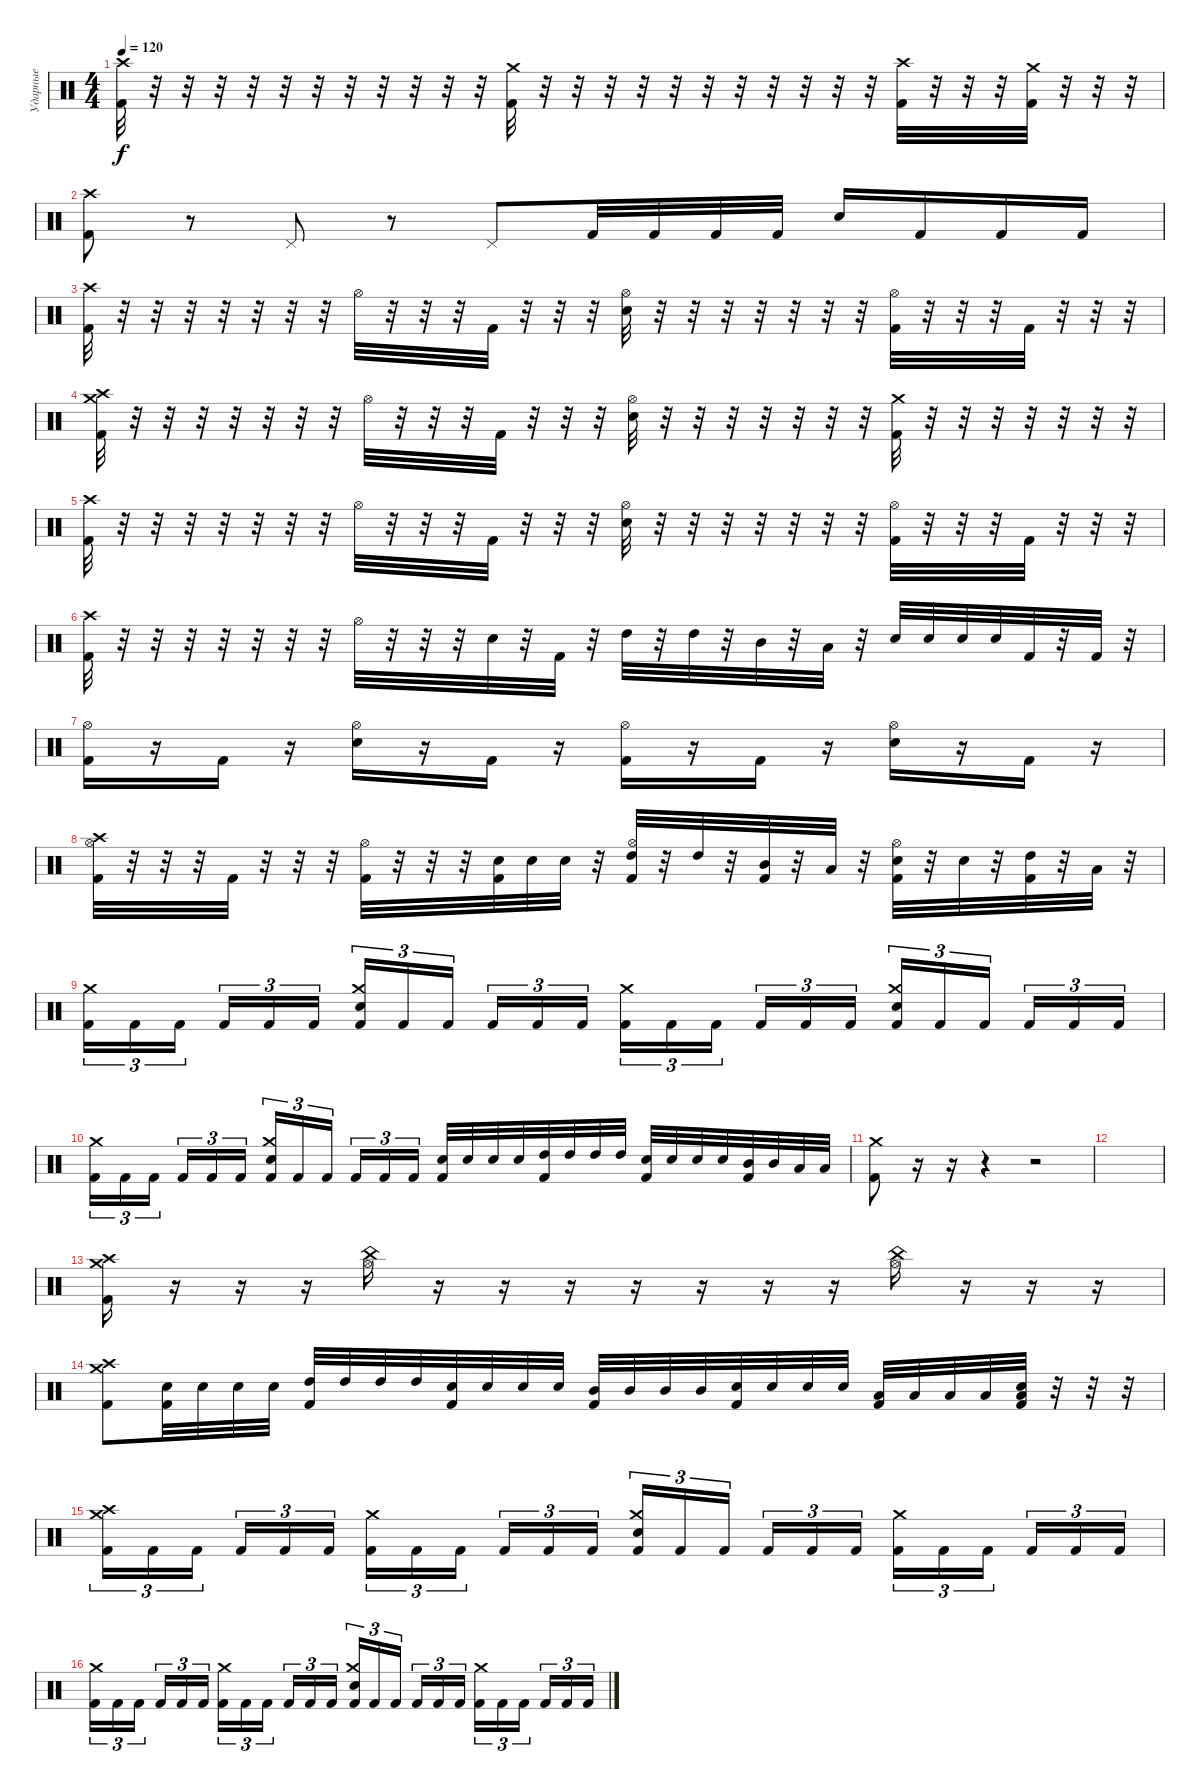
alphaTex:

\track ("Ударные" "Ударные") {instrument percussion}
\staff {score}
\articulation defaults
\ts (4 4)
\tempo 120
\clef neutral
\ks c
("Kick (hit) 2" "Crash high (hit)").32{dy f} r.32 r.32{volume 0} r.32 r.32 r.32 r.32 r.32 r.32 r.32 r.32 r.32 ("Crash medium (hit)" "Kick (hit) 2").32{volume 12} r.32 r.32{volume 0} r.32 r.32 r.32 r.32 r.32 r.32 r.32 r.32 r.32 ("Crash high (hit)" "Kick (hit) 2").32{volume 12} r.32 r.32 r.32 ("Crash medium (hit)" "Kick (hit) 2").32 r.32 r.32 r.32 |
("Crash high (hit)" "Kick (hit) 2").8 r.8 "Pedal Hi-Hat (hit)".8 r.8 "Pedal Hi-Hat (hit)".8 "Kick (hit) 2".32 "Kick (hit) 2".32 "Kick (hit) 2".32 "Kick (hit) 2".32 "Electric Snare (hit)".16 "Kick (hit) 2".16 "Kick (hit) 2".16 "Kick (hit) 2".16 |
("Kick (hit) 2" "Crash high (hit)").32{volume 12} r.32 r.32 r.32 r.32 r.32 r.32 r.32 "Hi-Hat (open)".32 r.32 r.32 r.32 "Kick (hit) 2".32 r.32 r.32 r.32 ("Hi-Hat (open)" "Electric Snare (hit)").32 r.32 r.32 r.32 r.32 r.32 r.32 r.32 ("Kick (hit) 2" "Hi-Hat (open)").32 r.32 r.32 r.32 "Kick (hit) 2".32 r.32 r.32 r.32 |
("Kick (hit) 2" "Crash medium (hit)" "Crash high (hit)").32 r.32 r.32 r.32 r.32 r.32 r.32 r.32 "Hi-Hat (open)".32 r.32 r.32 r.32 "Kick (hit) 2".32 r.32 r.32 r.32 ("Hi-Hat (open)" "Electric Snare (hit)").32 r.32 r.32 r.32 r.32 r.32 r.32 r.32 ("Crash medium (hit)" "Kick (hit) 2").32 r.32 r.32{volume 0} r.32 r.32 r.32 r.32 r.32 |
("Kick (hit) 2" "Crash high (hit)").32{volume 12} r.32 r.32 r.32 r.32 r.32 r.32 r.32 "Hi-Hat (open)".32 r.32 r.32 r.32 "Kick (hit) 2".32 r.32 r.32 r.32 ("Hi-Hat (open)" "Electric Snare (hit)").32 r.32 r.32 r.32 r.32 r.32 r.32 r.32 ("Kick (hit) 2" "Hi-Hat (open)").32 r.32 r.32 r.32 "Kick (hit) 2".32 r.32 r.32 r.32 |
("Kick (hit) 2" "Crash high (hit)").32 r.32 r.32 r.32 r.32 r.32 r.32 r.32 "Hi-Hat (open)".32 r.32 r.32 r.32 "Electric Snare (hit)".32 r.32 "Kick (hit) 2".32 r.32 "High Tom (hit)".32 r.32 "High Tom (hit)".32 r.32 "Mid Tom (hit)".32 r.32 "Low Tom (hit)".32 r.32 "Electric Snare (hit)".32 "Electric Snare (hit)".32 "Electric Snare (hit)".32 "Electric Snare (hit)".32 "Kick (hit) 2".32 r.32 "Kick (hit) 2".32 r.32 |
("Hi-Hat (open)" "Kick (hit) 2").16 r.16 "Kick (hit) 2".16 r.16 ("Hi-Hat (open)" "Electric Snare (hit)").16 r.16 "Kick (hit) 2".16 r.16 ("Hi-Hat (open)" "Kick (hit) 2").16 r.16 "Kick (hit) 2".16 r.16 ("Hi-Hat (open)" "Electric Snare (hit)").16 r.16 "Kick (hit) 2".16 r.16 |
("Hi-Hat (open)" "Crash high (hit)" "Kick (hit) 2").32 r.32 r.32 r.32 "Kick (hit) 2".32 r.32 r.32 r.32 ("Hi-Hat (open)" "Kick (hit) 2").32 r.32 r.32 r.32 ("Electric Snare (hit)" "Kick (hit) 2").32 "Electric Snare (hit)".32 "Electric Snare (hit)".32 r.32 ("Hi-Hat (open)" "High Tom (hit)" "Kick (hit) 2").32 r.32 "High Tom (hit)".32 r.32 ("Mid Tom (hit)" "Kick (hit) 2").32 r.32 "Low Tom (hit)".32 r.32 ("Hi-Hat (open)" "Electric Snare (hit)" "Kick (hit) 2").32 r.32 "Electric Snare (hit)".32 r.32 ("High Tom (hit)" "Kick (hit) 2").32 r.32 "Low Tom (hit)".32 r.32 |
("Crash medium (hit)" "Kick (hit) 2").16{tu (3 2)} "Kick (hit) 2".16{tu (3 2)} "Kick (hit) 2".16{tu (3 2) beam splitsecondary} "Kick (hit) 2".16{tu (3 2)} "Kick (hit) 2".16{tu (3 2)} "Kick (hit) 2".16{tu (3 2)} ("Electric Snare (hit)" "Crash medium (hit)" "Kick (hit) 2").16{tu (3 2)} "Kick (hit) 2".16{tu (3 2)} "Kick (hit) 2".16{tu (3 2) beam splitsecondary} "Kick (hit) 2".16{tu (3 2)} "Kick (hit) 2".16{tu (3 2)} "Kick (hit) 2".16{tu (3 2)} ("Crash medium (hit)" "Kick (hit) 2").16{tu (3 2)} "Kick (hit) 2".16{tu (3 2)} "Kick (hit) 2".16{tu (3 2) beam splitsecondary} "Kick (hit) 2".16{tu (3 2)} "Kick (hit) 2".16{tu (3 2)} "Kick (hit) 2".16{tu (3 2)} ("Electric Snare (hit)" "Crash medium (hit)" "Kick (hit) 2").16{tu (3 2)} "Kick (hit) 2".16{tu (3 2)} "Kick (hit) 2".16{tu (3 2) beam splitsecondary} "Kick (hit) 2".16{tu (3 2)} "Kick (hit) 2".16{tu (3 2)} "Kick (hit) 2".16{tu (3 2)} |
("Crash medium (hit)" "Kick (hit) 2").16{tu (3 2)} "Kick (hit) 2".16{tu (3 2)} "Kick (hit) 2".16{tu (3 2) beam splitsecondary} "Kick (hit) 2".16{tu (3 2)} "Kick (hit) 2".16{tu (3 2)} "Kick (hit) 2".16{tu (3 2)} ("Electric Snare (hit)" "Crash medium (hit)" "Kick (hit) 2").16{tu (3 2)} "Kick (hit) 2".16{tu (3 2)} "Kick (hit) 2".16{tu (3 2) beam splitsecondary} "Kick (hit) 2".16{tu (3 2)} "Kick (hit) 2".16{tu (3 2)} "Kick (hit) 2".16{tu (3 2)} ("Electric Snare (hit)" "Kick (hit) 2").32 "Electric Snare (hit)".32 "Electric Snare (hit)".32 "Electric Snare (hit)".32 ("High Tom (hit)" "Kick (hit) 2").32 "High Tom (hit)".32 "High Tom (hit)".32 "High Tom (hit)".32 ("Electric Snare (hit)" "Kick (hit) 2").32 "Electric Snare (hit)".32 "Electric Snare (hit)".32 "Electric Snare (hit)".32 ("Mid Tom (hit)" "Kick (hit) 2").32 "Mid Tom (hit)".32 "Low Tom (hit)".32 "Low Tom (hit)".32 |
("Crash medium (hit)" "Kick (hit) 2").8 r.16{volume 0} r.16 r.4 r.2 |
|
("Crash high (hit)" "Crash medium (hit)" "Kick (hit) 2").16{volume 12} r.16 r.16 r.16 ("China (hit)" "Hi-Hat (open)").16 r.16 r.16 r.16 r.16 r.16 r.16 r.16 ("China (hit)" "Hi-Hat (open)").16 r.16 r.16 r.16 |
("Crash high (hit)" "Crash medium (hit)" "Kick (hit) 2").8 ("Electric Snare (hit)" "Kick (hit) 2").32 "Electric Snare (hit)".32 "Electric Snare (hit)".32 "Electric Snare (hit)".32 ("High Tom (hit)" "Kick (hit) 2").32 "High Tom (hit)".32 "High Tom (hit)".32 "High Tom (hit)".32 ("Electric Snare (hit)" "Kick (hit) 2").32 "Electric Snare (hit)".32 "Electric Snare (hit)".32 "Electric Snare (hit)".32 ("Mid Tom (hit)" "Kick (hit) 2").32 "Mid Tom (hit)".32 "Mid Tom (hit)".32 "Mid Tom (hit)".32 ("Electric Snare (hit)" "Kick (hit) 2").32 "Electric Snare (hit)".32 "Electric Snare (hit)".32 "Electric Snare (hit)".32 ("Low Tom (hit)" "Kick (hit) 2").32 "Low Tom (hit)".32 "Low Tom (hit)".32 "Low Tom (hit)".32 ("Low Tom (hit)" "Electric Snare (hit)" "Kick (hit) 2").32 r.32 r.32 r.32 |
("Crash high (hit)" "Crash medium (hit)" "Kick (hit) 2").16{tu (3 2)} "Kick (hit) 2".16{tu (3 2)} "Kick (hit) 2".16{tu (3 2) beam splitsecondary} "Kick (hit) 2".16{tu (3 2)} "Kick (hit) 2".16{tu (3 2)} "Kick (hit) 2".16{tu (3 2)} ("Crash medium (hit)" "Kick (hit) 2").16{tu (3 2)} "Kick (hit) 2".16{tu (3 2)} "Kick (hit) 2".16{tu (3 2) beam splitsecondary} "Kick (hit) 2".16{tu (3 2)} "Kick (hit) 2".16{tu (3 2)} "Kick (hit) 2".16{tu (3 2)} ("Electric Snare (hit)" "Crash medium (hit)" "Kick (hit) 2").16{tu (3 2)} "Kick (hit) 2".16{tu (3 2)} "Kick (hit) 2".16{tu (3 2) beam splitsecondary} "Kick (hit) 2".16{tu (3 2)} "Kick (hit) 2".16{tu (3 2)} "Kick (hit) 2".16{tu (3 2)} ("Crash medium (hit)" "Kick (hit) 2").16{tu (3 2)} "Kick (hit) 2".16{tu (3 2)} "Kick (hit) 2".16{tu (3 2) beam splitsecondary} "Kick (hit) 2".16{tu (3 2)} "Kick (hit) 2".16{tu (3 2)} "Kick (hit) 2".16{tu (3 2)} |
("Crash medium (hit)" "Kick (hit) 2").16{tu (3 2)} "Kick (hit) 2".16{tu (3 2)} "Kick (hit) 2".16{tu (3 2) beam splitsecondary} "Kick (hit) 2".16{tu (3 2)} "Kick (hit) 2".16{tu (3 2)} "Kick (hit) 2".16{tu (3 2)} ("Crash medium (hit)" "Kick (hit) 2").16{tu (3 2)} "Kick (hit) 2".16{tu (3 2)} "Kick (hit) 2".16{tu (3 2) beam splitsecondary} "Kick (hit) 2".16{tu (3 2)} "Kick (hit) 2".16{tu (3 2)} "Kick (hit) 2".16{tu (3 2)} ("Electric Snare (hit)" "Crash medium (hit)" "Kick (hit) 2").16{tu (3 2)} "Kick (hit) 2".16{tu (3 2)} "Kick (hit) 2".16{tu (3 2) beam splitsecondary} "Kick (hit) 2".16{tu (3 2)} "Kick (hit) 2".16{tu (3 2)} "Kick (hit) 2".16{tu (3 2)} ("Crash medium (hit)" "Kick (hit) 2").16{tu (3 2)} "Kick (hit) 2".16{tu (3 2)} "Kick (hit) 2".16{tu (3 2) beam splitsecondary} "Kick (hit) 2".16{tu (3 2)} "Kick (hit) 2".16{tu (3 2)} "Kick (hit) 2".16{tu (3 2)}
